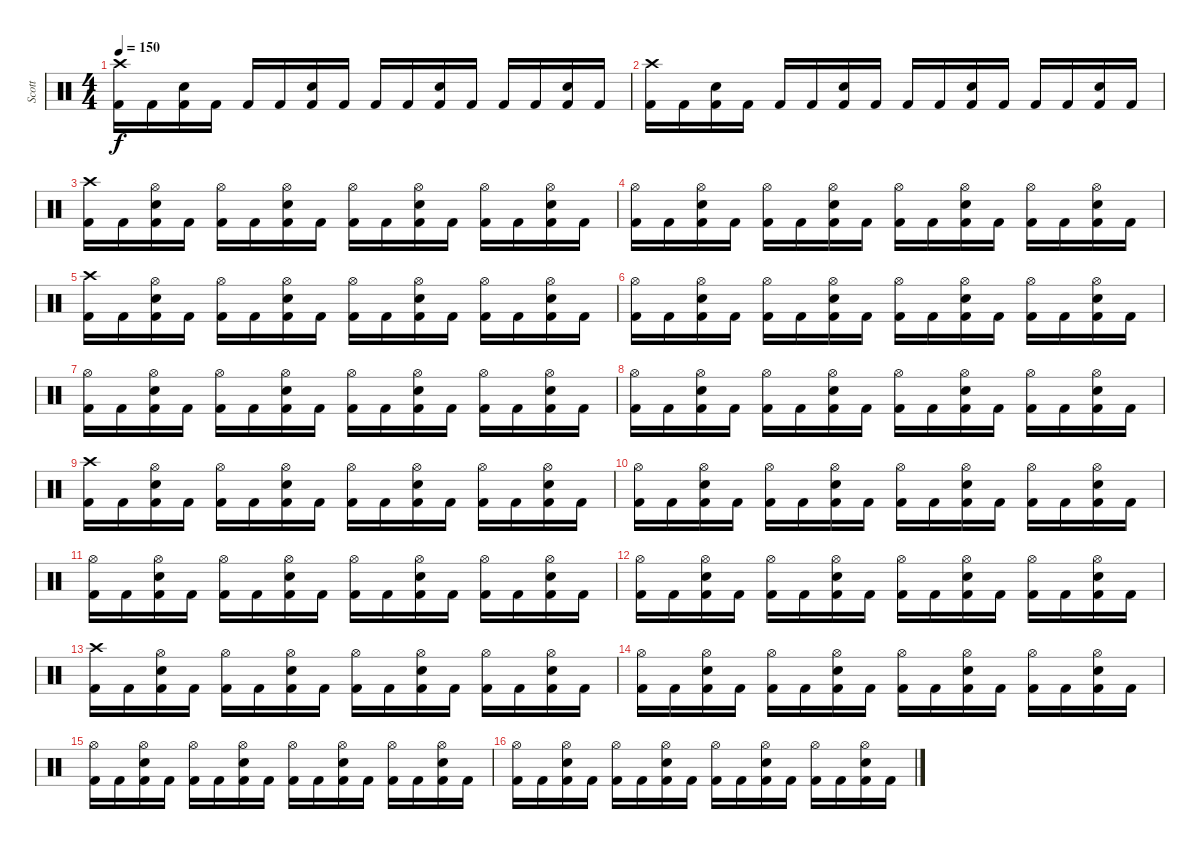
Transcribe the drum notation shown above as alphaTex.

\track ("Scott" "Scott") {instrument percussion}
\staff {score}
\articulation defaults
\ts (4 4)
\tempo 150
\clef neutral
\ks c
("Crash high (hit)" "Kick (hit) 2").16{dy f} "Kick (hit) 2".16 ("Snare (hit) 2" "Kick (hit) 2").16 "Kick (hit) 2".16 "Kick (hit) 2".16 "Kick (hit) 2".16 ("Snare (hit) 2" "Kick (hit) 2").16 "Kick (hit) 2".16 "Kick (hit) 2".16 "Kick (hit) 2".16 ("Snare (hit) 2" "Kick (hit) 2").16 "Kick (hit) 2".16 "Kick (hit) 2".16 "Kick (hit) 2".16 ("Snare (hit) 2" "Kick (hit) 2").16 "Kick (hit) 2".16 |
("Crash high (hit)" "Kick (hit) 2").16 "Kick (hit) 2".16 ("Snare (hit) 2" "Kick (hit) 2").16 "Kick (hit) 2".16 "Kick (hit) 2".16 "Kick (hit) 2".16 ("Snare (hit) 2" "Kick (hit) 2").16 "Kick (hit) 2".16 "Kick (hit) 2".16 "Kick (hit) 2".16 ("Snare (hit) 2" "Kick (hit) 2").16 "Kick (hit) 2".16 "Kick (hit) 2".16 "Kick (hit) 2".16 ("Snare (hit) 2" "Kick (hit) 2").16 "Kick (hit) 2".16 |
("Crash high (hit)" "Kick (hit) 2").16 "Kick (hit) 2".16 ("Hi-Hat (open)" "Snare (hit) 2" "Kick (hit) 2").16 "Kick (hit) 2".16 ("Hi-Hat (open)" "Kick (hit) 2").16 "Kick (hit) 2".16 ("Hi-Hat (open)" "Snare (hit) 2" "Kick (hit) 2").16 "Kick (hit) 2".16 ("Hi-Hat (open)" "Kick (hit) 2").16 "Kick (hit) 2".16 ("Hi-Hat (open)" "Snare (hit) 2" "Kick (hit) 2").16 "Kick (hit) 2".16 ("Hi-Hat (open)" "Kick (hit) 2").16 "Kick (hit) 2".16 ("Hi-Hat (open)" "Snare (hit) 2" "Kick (hit) 2").16 "Kick (hit) 2".16 |
("Hi-Hat (open)" "Kick (hit) 2").16 "Kick (hit) 2".16 ("Hi-Hat (open)" "Snare (hit) 2" "Kick (hit) 2").16 "Kick (hit) 2".16 ("Hi-Hat (open)" "Kick (hit) 2").16 "Kick (hit) 2".16 ("Hi-Hat (open)" "Snare (hit) 2" "Kick (hit) 2").16 "Kick (hit) 2".16 ("Hi-Hat (open)" "Kick (hit) 2").16 "Kick (hit) 2".16 ("Hi-Hat (open)" "Snare (hit) 2" "Kick (hit) 2").16 "Kick (hit) 2".16 ("Hi-Hat (open)" "Kick (hit) 2").16 "Kick (hit) 2".16 ("Hi-Hat (open)" "Snare (hit) 2" "Kick (hit) 2").16 "Kick (hit) 2".16 |
("Crash high (hit)" "Kick (hit) 2").16 "Kick (hit) 2".16 ("Hi-Hat (open)" "Snare (hit) 2" "Kick (hit) 2").16 "Kick (hit) 2".16 ("Hi-Hat (open)" "Kick (hit) 2").16 "Kick (hit) 2".16 ("Hi-Hat (open)" "Snare (hit) 2" "Kick (hit) 2").16 "Kick (hit) 2".16 ("Hi-Hat (open)" "Kick (hit) 2").16 "Kick (hit) 2".16 ("Hi-Hat (open)" "Snare (hit) 2" "Kick (hit) 2").16 "Kick (hit) 2".16 ("Hi-Hat (open)" "Kick (hit) 2").16 "Kick (hit) 2".16 ("Hi-Hat (open)" "Snare (hit) 2" "Kick (hit) 2").16 "Kick (hit) 2".16 |
("Hi-Hat (open)" "Kick (hit) 2").16 "Kick (hit) 2".16 ("Hi-Hat (open)" "Snare (hit) 2" "Kick (hit) 2").16 "Kick (hit) 2".16 ("Hi-Hat (open)" "Kick (hit) 2").16 "Kick (hit) 2".16 ("Hi-Hat (open)" "Snare (hit) 2" "Kick (hit) 2").16 "Kick (hit) 2".16 ("Hi-Hat (open)" "Kick (hit) 2").16 "Kick (hit) 2".16 ("Hi-Hat (open)" "Snare (hit) 2" "Kick (hit) 2").16 "Kick (hit) 2".16 ("Hi-Hat (open)" "Kick (hit) 2").16 "Kick (hit) 2".16 ("Hi-Hat (open)" "Snare (hit) 2" "Kick (hit) 2").16 "Kick (hit) 2".16 |
("Hi-Hat (open)" "Kick (hit) 2").16 "Kick (hit) 2".16 ("Hi-Hat (open)" "Snare (hit) 2" "Kick (hit) 2").16 "Kick (hit) 2".16 ("Hi-Hat (open)" "Kick (hit) 2").16 "Kick (hit) 2".16 ("Hi-Hat (open)" "Snare (hit) 2" "Kick (hit) 2").16 "Kick (hit) 2".16 ("Hi-Hat (open)" "Kick (hit) 2").16 "Kick (hit) 2".16 ("Hi-Hat (open)" "Snare (hit) 2" "Kick (hit) 2").16 "Kick (hit) 2".16 ("Hi-Hat (open)" "Kick (hit) 2").16 "Kick (hit) 2".16 ("Hi-Hat (open)" "Snare (hit) 2" "Kick (hit) 2").16 "Kick (hit) 2".16 |
("Hi-Hat (open)" "Kick (hit) 2").16 "Kick (hit) 2".16 ("Hi-Hat (open)" "Snare (hit) 2" "Kick (hit) 2").16 "Kick (hit) 2".16 ("Hi-Hat (open)" "Kick (hit) 2").16 "Kick (hit) 2".16 ("Hi-Hat (open)" "Snare (hit) 2" "Kick (hit) 2").16 "Kick (hit) 2".16 ("Hi-Hat (open)" "Kick (hit) 2").16 "Kick (hit) 2".16 ("Hi-Hat (open)" "Snare (hit) 2" "Kick (hit) 2").16 "Kick (hit) 2".16 ("Hi-Hat (open)" "Kick (hit) 2").16 "Kick (hit) 2".16 ("Hi-Hat (open)" "Snare (hit) 2" "Kick (hit) 2").16 "Kick (hit) 2".16 |
("Crash high (hit)" "Kick (hit) 2").16 "Kick (hit) 2".16 ("Hi-Hat (open)" "Snare (hit) 2" "Kick (hit) 2").16 "Kick (hit) 2".16 ("Hi-Hat (open)" "Kick (hit) 2").16 "Kick (hit) 2".16 ("Hi-Hat (open)" "Snare (hit) 2" "Kick (hit) 2").16 "Kick (hit) 2".16 ("Hi-Hat (open)" "Kick (hit) 2").16 "Kick (hit) 2".16 ("Hi-Hat (open)" "Snare (hit) 2" "Kick (hit) 2").16 "Kick (hit) 2".16 ("Hi-Hat (open)" "Kick (hit) 2").16 "Kick (hit) 2".16 ("Hi-Hat (open)" "Snare (hit) 2" "Kick (hit) 2").16 "Kick (hit) 2".16 |
("Hi-Hat (open)" "Kick (hit) 2").16 "Kick (hit) 2".16 ("Hi-Hat (open)" "Snare (hit) 2" "Kick (hit) 2").16 "Kick (hit) 2".16 ("Hi-Hat (open)" "Kick (hit) 2").16 "Kick (hit) 2".16 ("Hi-Hat (open)" "Snare (hit) 2" "Kick (hit) 2").16 "Kick (hit) 2".16 ("Hi-Hat (open)" "Kick (hit) 2").16 "Kick (hit) 2".16 ("Hi-Hat (open)" "Snare (hit) 2" "Kick (hit) 2").16 "Kick (hit) 2".16 ("Hi-Hat (open)" "Kick (hit) 2").16 "Kick (hit) 2".16 ("Hi-Hat (open)" "Snare (hit) 2" "Kick (hit) 2").16 "Kick (hit) 2".16 |
("Hi-Hat (open)" "Kick (hit) 2").16 "Kick (hit) 2".16 ("Hi-Hat (open)" "Snare (hit) 2" "Kick (hit) 2").16 "Kick (hit) 2".16 ("Hi-Hat (open)" "Kick (hit) 2").16 "Kick (hit) 2".16 ("Hi-Hat (open)" "Snare (hit) 2" "Kick (hit) 2").16 "Kick (hit) 2".16 ("Hi-Hat (open)" "Kick (hit) 2").16 "Kick (hit) 2".16 ("Hi-Hat (open)" "Snare (hit) 2" "Kick (hit) 2").16 "Kick (hit) 2".16 ("Hi-Hat (open)" "Kick (hit) 2").16 "Kick (hit) 2".16 ("Hi-Hat (open)" "Snare (hit) 2" "Kick (hit) 2").16 "Kick (hit) 2".16 |
("Hi-Hat (open)" "Kick (hit) 2").16 "Kick (hit) 2".16 ("Hi-Hat (open)" "Snare (hit) 2" "Kick (hit) 2").16 "Kick (hit) 2".16 ("Hi-Hat (open)" "Kick (hit) 2").16 "Kick (hit) 2".16 ("Hi-Hat (open)" "Snare (hit) 2" "Kick (hit) 2").16 "Kick (hit) 2".16 ("Hi-Hat (open)" "Kick (hit) 2").16 "Kick (hit) 2".16 ("Hi-Hat (open)" "Snare (hit) 2" "Kick (hit) 2").16 "Kick (hit) 2".16 ("Hi-Hat (open)" "Kick (hit) 2").16 "Kick (hit) 2".16 ("Hi-Hat (open)" "Snare (hit) 2" "Kick (hit) 2").16 "Kick (hit) 2".16 |
("Crash high (hit)" "Kick (hit) 2").16 "Kick (hit) 2".16 ("Hi-Hat (open)" "Snare (hit) 2" "Kick (hit) 2").16 "Kick (hit) 2".16 ("Hi-Hat (open)" "Kick (hit) 2").16 "Kick (hit) 2".16 ("Hi-Hat (open)" "Snare (hit) 2" "Kick (hit) 2").16 "Kick (hit) 2".16 ("Hi-Hat (open)" "Kick (hit) 2").16 "Kick (hit) 2".16 ("Hi-Hat (open)" "Snare (hit) 2" "Kick (hit) 2").16 "Kick (hit) 2".16 ("Hi-Hat (open)" "Kick (hit) 2").16 "Kick (hit) 2".16 ("Hi-Hat (open)" "Snare (hit) 2" "Kick (hit) 2").16 "Kick (hit) 2".16 |
("Hi-Hat (open)" "Kick (hit) 2").16 "Kick (hit) 2".16 ("Hi-Hat (open)" "Snare (hit) 2" "Kick (hit) 2").16 "Kick (hit) 2".16 ("Hi-Hat (open)" "Kick (hit) 2").16 "Kick (hit) 2".16 ("Hi-Hat (open)" "Snare (hit) 2" "Kick (hit) 2").16 "Kick (hit) 2".16 ("Hi-Hat (open)" "Kick (hit) 2").16 "Kick (hit) 2".16 ("Hi-Hat (open)" "Snare (hit) 2" "Kick (hit) 2").16 "Kick (hit) 2".16 ("Hi-Hat (open)" "Kick (hit) 2").16 "Kick (hit) 2".16 ("Hi-Hat (open)" "Snare (hit) 2" "Kick (hit) 2").16 "Kick (hit) 2".16 |
("Hi-Hat (open)" "Kick (hit) 2").16 "Kick (hit) 2".16 ("Hi-Hat (open)" "Snare (hit) 2" "Kick (hit) 2").16 "Kick (hit) 2".16 ("Hi-Hat (open)" "Kick (hit) 2").16 "Kick (hit) 2".16 ("Hi-Hat (open)" "Snare (hit) 2" "Kick (hit) 2").16 "Kick (hit) 2".16 ("Hi-Hat (open)" "Kick (hit) 2").16 "Kick (hit) 2".16 ("Hi-Hat (open)" "Snare (hit) 2" "Kick (hit) 2").16 "Kick (hit) 2".16 ("Hi-Hat (open)" "Kick (hit) 2").16 "Kick (hit) 2".16 ("Hi-Hat (open)" "Snare (hit) 2" "Kick (hit) 2").16 "Kick (hit) 2".16 |
("Hi-Hat (open)" "Kick (hit) 2").16 "Kick (hit) 2".16 ("Hi-Hat (open)" "Snare (hit) 2" "Kick (hit) 2").16 "Kick (hit) 2".16 ("Hi-Hat (open)" "Kick (hit) 2").16 "Kick (hit) 2".16 ("Hi-Hat (open)" "Snare (hit) 2" "Kick (hit) 2").16 "Kick (hit) 2".16 ("Hi-Hat (open)" "Kick (hit) 2").16 "Kick (hit) 2".16 ("Hi-Hat (open)" "Snare (hit) 2" "Kick (hit) 2").16 "Kick (hit) 2".16 ("Hi-Hat (open)" "Kick (hit) 2").16 "Kick (hit) 2".16 ("Hi-Hat (open)" "Snare (hit) 2" "Kick (hit) 2").16 "Kick (hit) 2".16
